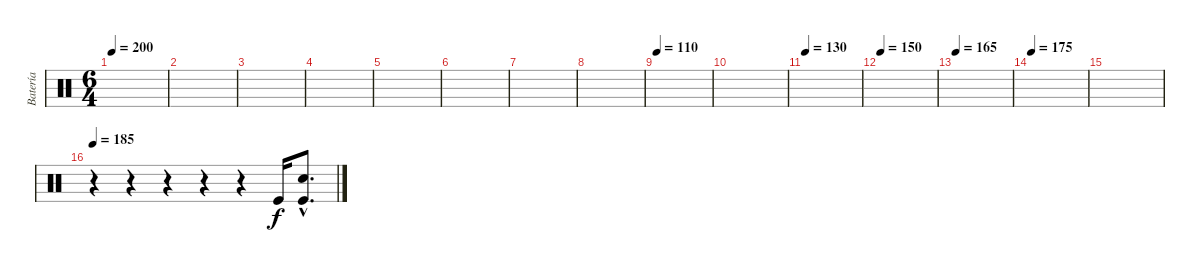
\track ("Batería" "Batería") {instrument percussion}
\staff {score}
\articulation defaults
\ts (6 4)
\tempo 200
\tempo 105
\tempo 200
\clef neutral
\ks c
|
|
|
|
|
|
|
|
\tempo 110
|
|
\tempo 130
|
\tempo 150
|
\tempo 165
|
\tempo 175
|
|
\tempo 185
r.4 r.4 r.4 r.4 r.4 "Kick (hit)".16 ("Snare (hit) 2"{hac} "Kick (hit)"{hac}).8{d}
